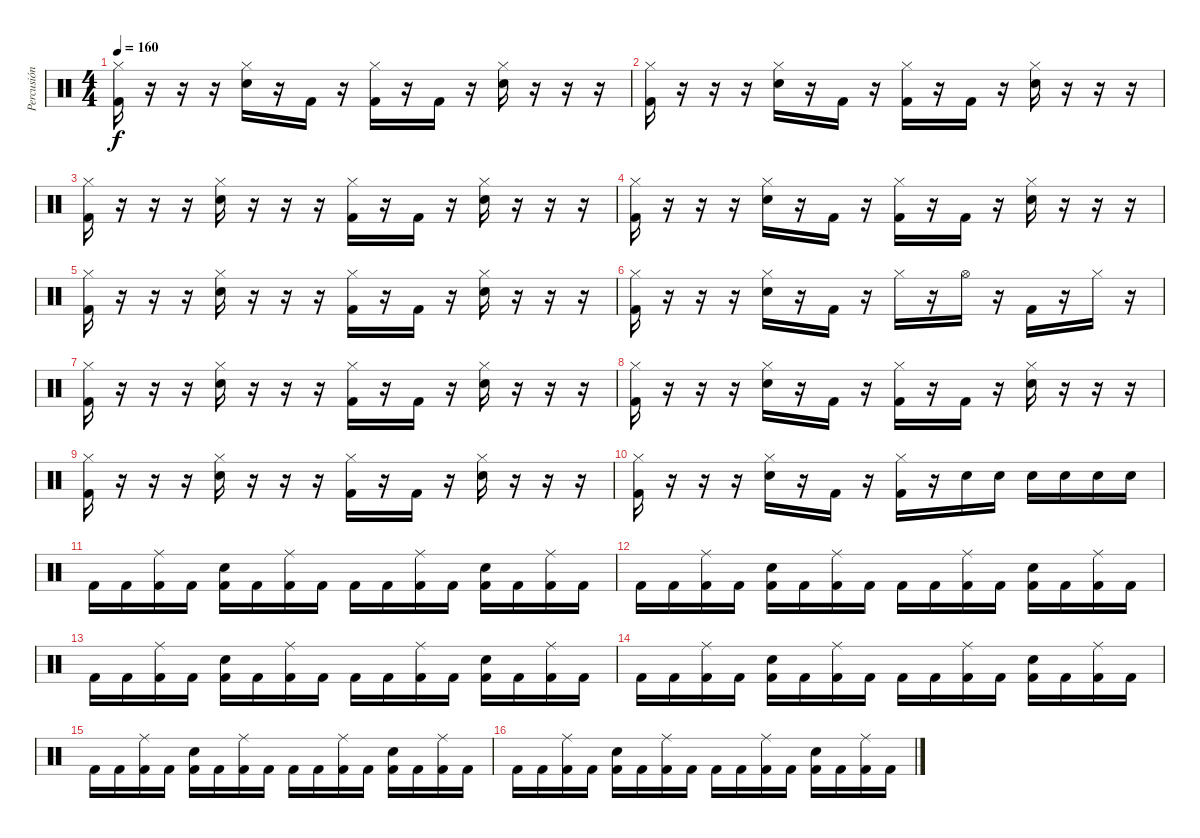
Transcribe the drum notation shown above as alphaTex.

\track ("Percusión" "Percusión") {instrument percussion}
\staff {score}
\articulation defaults
\ts (4 4)
\tempo 160
\clef neutral
\ks c
("Hi-Hat (closed)" "Kick (hit) 2").16{dy f} r.16 r.16 r.16 ("Hi-Hat (closed)" "Snare (hit) 2").16 r.16 "Kick (hit) 2".16 r.16 ("Hi-Hat (closed)" "Kick (hit) 2").16 r.16 "Kick (hit) 2".16 r.16 ("Hi-Hat (closed)" "Snare (hit) 2").16 r.16 r.16 r.16 |
("Hi-Hat (closed)" "Kick (hit) 2").16 r.16 r.16 r.16 ("Hi-Hat (closed)" "Snare (hit) 2").16 r.16 "Kick (hit) 2".16 r.16 ("Hi-Hat (closed)" "Kick (hit) 2").16 r.16 "Kick (hit) 2".16 r.16 ("Hi-Hat (closed)" "Snare (hit) 2").16 r.16 r.16 r.16 |
("Hi-Hat (closed)" "Kick (hit) 2").16 r.16 r.16 r.16 ("Hi-Hat (closed)" "Snare (hit) 2").16 r.16 r.16 r.16 ("Hi-Hat (closed)" "Kick (hit) 2").16 r.16 "Kick (hit) 2".16 r.16 ("Hi-Hat (closed)" "Snare (hit) 2").16 r.16 r.16 r.16 |
("Hi-Hat (closed)" "Kick (hit) 2").16 r.16 r.16 r.16 ("Hi-Hat (closed)" "Snare (hit) 2").16 r.16 "Kick (hit) 2".16 r.16 ("Hi-Hat (closed)" "Kick (hit) 2").16 r.16 "Kick (hit) 2".16 r.16 ("Hi-Hat (closed)" "Snare (hit) 2").16 r.16 r.16 r.16 |
("Hi-Hat (closed)" "Kick (hit) 2").16 r.16 r.16 r.16 ("Hi-Hat (closed)" "Snare (hit) 2").16 r.16 r.16 r.16 ("Hi-Hat (closed)" "Kick (hit) 2").16 r.16 "Kick (hit) 2".16 r.16 ("Hi-Hat (closed)" "Snare (hit) 2").16 r.16 r.16 r.16 |
("Hi-Hat (closed)" "Kick (hit) 2").16 r.16 r.16 r.16 ("Hi-Hat (closed)" "Snare (hit) 2").16 r.16 "Kick (hit) 2".16 r.16 "Hi-Hat (closed)".16 r.16 "Hi-Hat (open)".16 r.16 "Kick (hit) 2".16 r.16 "Hi-Hat (closed)".16 r.16 |
("Hi-Hat (closed)" "Kick (hit) 2").16 r.16 r.16 r.16 ("Hi-Hat (closed)" "Snare (hit) 2").16 r.16 r.16 r.16 ("Hi-Hat (closed)" "Kick (hit) 2").16 r.16 "Kick (hit) 2".16 r.16 ("Hi-Hat (closed)" "Snare (hit) 2").16 r.16 r.16 r.16 |
("Hi-Hat (closed)" "Kick (hit) 2").16 r.16 r.16 r.16 ("Hi-Hat (closed)" "Snare (hit) 2").16 r.16 "Kick (hit) 2".16 r.16 ("Hi-Hat (closed)" "Kick (hit) 2").16 r.16 "Kick (hit) 2".16 r.16 ("Hi-Hat (closed)" "Snare (hit) 2").16 r.16 r.16 r.16 |
("Hi-Hat (closed)" "Kick (hit) 2").16 r.16 r.16 r.16 ("Hi-Hat (closed)" "Snare (hit) 2").16 r.16 r.16 r.16 ("Hi-Hat (closed)" "Kick (hit) 2").16 r.16 "Kick (hit) 2".16 r.16 ("Hi-Hat (closed)" "Snare (hit) 2").16 r.16 r.16 r.16 |
("Hi-Hat (closed)" "Kick (hit) 2").16 r.16 r.16 r.16 ("Hi-Hat (closed)" "Snare (hit) 2").16 r.16 "Kick (hit) 2".16 r.16 ("Hi-Hat (closed)" "Kick (hit) 2").16 r.16 "Snare (hit) 2".16 "Snare (hit) 2".16 "Snare (hit) 2".16 "Snare (hit) 2".16 "Snare (hit) 2".16 "Snare (hit) 2".16 |
"Kick (hit) 2".16 "Kick (hit) 2".16 ("Ride (middle)" "Kick (hit) 2").16 "Kick (hit) 2".16 ("Snare (hit) 2" "Kick (hit) 2").16 "Kick (hit) 2".16 ("Ride (middle)" "Kick (hit) 2").16 "Kick (hit) 2".16 "Kick (hit) 2".16 "Kick (hit) 2".16 ("Ride (middle)" "Kick (hit) 2").16 "Kick (hit) 2".16 ("Snare (hit) 2" "Kick (hit) 2").16 "Kick (hit) 2".16 ("Ride (middle)" "Kick (hit) 2").16 "Kick (hit) 2".16 |
"Kick (hit) 2".16 "Kick (hit) 2".16 ("Ride (middle)" "Kick (hit) 2").16 "Kick (hit) 2".16 ("Snare (hit) 2" "Kick (hit) 2").16 "Kick (hit) 2".16 ("Ride (middle)" "Kick (hit) 2").16 "Kick (hit) 2".16 "Kick (hit) 2".16 "Kick (hit) 2".16 ("Ride (middle)" "Kick (hit) 2").16 "Kick (hit) 2".16 ("Snare (hit) 2" "Kick (hit) 2").16 "Kick (hit) 2".16 ("Ride (middle)" "Kick (hit) 2").16 "Kick (hit) 2".16 |
"Kick (hit) 2".16 "Kick (hit) 2".16 ("Ride (middle)" "Kick (hit) 2").16 "Kick (hit) 2".16 ("Snare (hit) 2" "Kick (hit) 2").16 "Kick (hit) 2".16 ("Ride (middle)" "Kick (hit) 2").16 "Kick (hit) 2".16 "Kick (hit) 2".16 "Kick (hit) 2".16 ("Ride (middle)" "Kick (hit) 2").16 "Kick (hit) 2".16 ("Snare (hit) 2" "Kick (hit) 2").16 "Kick (hit) 2".16 ("Ride (middle)" "Kick (hit) 2").16 "Kick (hit) 2".16 |
"Kick (hit) 2".16 "Kick (hit) 2".16 ("Ride (middle)" "Kick (hit) 2").16 "Kick (hit) 2".16 ("Snare (hit) 2" "Kick (hit) 2").16 "Kick (hit) 2".16 ("Ride (middle)" "Kick (hit) 2").16 "Kick (hit) 2".16 "Kick (hit) 2".16 "Kick (hit) 2".16 ("Ride (middle)" "Kick (hit) 2").16 "Kick (hit) 2".16 ("Snare (hit) 2" "Kick (hit) 2").16 "Kick (hit) 2".16 ("Ride (middle)" "Kick (hit) 2").16 "Kick (hit) 2".16 |
"Kick (hit) 2".16 "Kick (hit) 2".16 ("Ride (middle)" "Kick (hit) 2").16 "Kick (hit) 2".16 ("Snare (hit) 2" "Kick (hit) 2").16 "Kick (hit) 2".16 ("Ride (middle)" "Kick (hit) 2").16 "Kick (hit) 2".16 "Kick (hit) 2".16 "Kick (hit) 2".16 ("Ride (middle)" "Kick (hit) 2").16 "Kick (hit) 2".16 ("Snare (hit) 2" "Kick (hit) 2").16 "Kick (hit) 2".16 ("Ride (middle)" "Kick (hit) 2").16 "Kick (hit) 2".16 |
"Kick (hit) 2".16 "Kick (hit) 2".16 ("Ride (middle)" "Kick (hit) 2").16 "Kick (hit) 2".16 ("Snare (hit) 2" "Kick (hit) 2").16 "Kick (hit) 2".16 ("Ride (middle)" "Kick (hit) 2").16 "Kick (hit) 2".16 "Kick (hit) 2".16 "Kick (hit) 2".16 ("Ride (middle)" "Kick (hit) 2").16 "Kick (hit) 2".16 ("Snare (hit) 2" "Kick (hit) 2").16 "Kick (hit) 2".16 ("Ride (middle)" "Kick (hit) 2").16 "Kick (hit) 2".16
